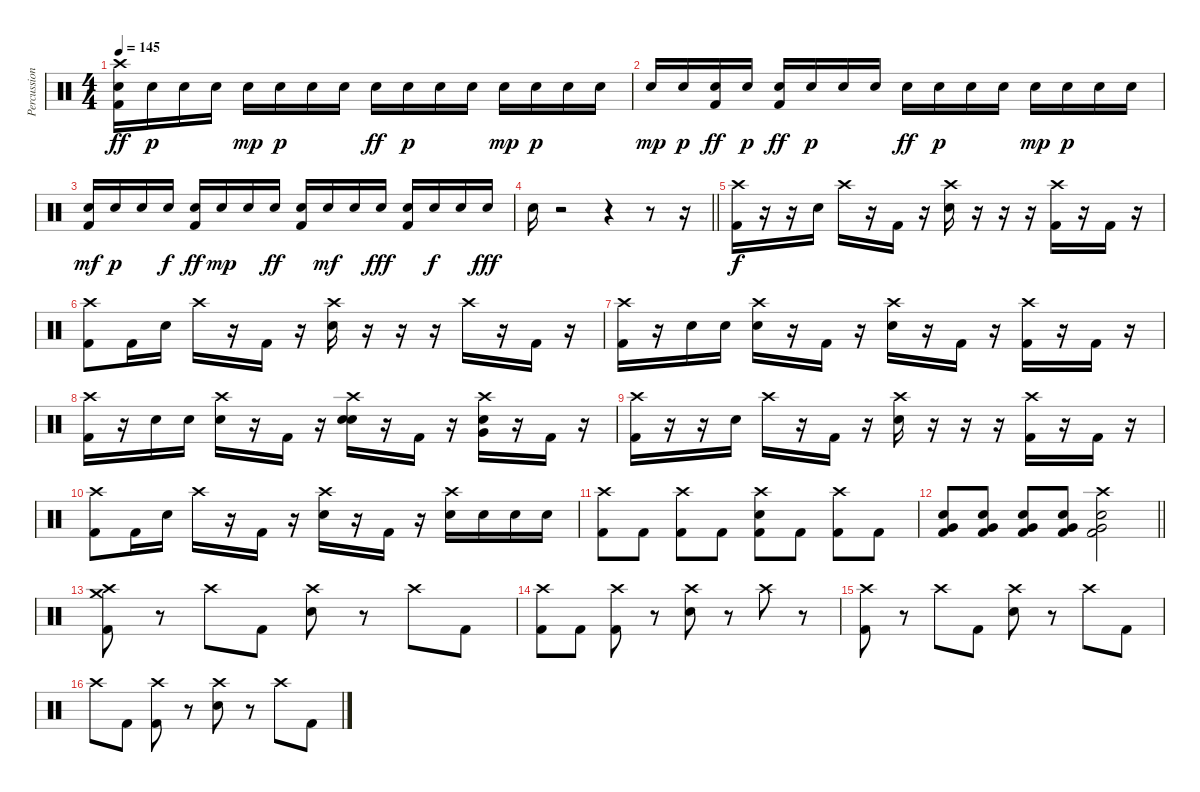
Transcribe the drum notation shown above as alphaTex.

\track ("Percussions" "Percussion") {instrument percussion}
\staff {score}
\articulation defaults
\ts (4 4)
\tempo 145
\clef neutral
\ks c
("Crash high (hit)" "Snare (hit) 2" "Kick (hit) 2").16{dy ff} "Snare (hit) 2".16{dy p} "Snare (hit) 2".16 "Snare (hit) 2".16 "Snare (hit) 2".16{dy mp} "Snare (hit) 2".16{dy p} "Snare (hit) 2".16 "Snare (hit) 2".16 "Electric Snare (hit)".16{dy ff} "Snare (hit) 2".16{dy p} "Snare (hit) 2".16 "Snare (hit) 2".16 "Snare (hit) 2".16{dy mp} "Snare (hit) 2".16{dy p} "Snare (hit) 2".16 "Snare (hit) 2".16 |
"Snare (hit) 2".16{dy mp} "Snare (hit) 2".16{dy p} ("Snare (hit) 2" "Kick (hit) 2").16{dy ff} "Snare (hit) 2".16{dy p} ("Snare (hit) 2" "Kick (hit) 2").16{dy ff} "Snare (hit) 2".16{dy p} "Snare (hit) 2".16 "Snare (hit) 2".16 "Electric Snare (hit)".16{dy ff} "Snare (hit) 2".16{dy p} "Snare (hit) 2".16 "Snare (hit) 2".16 "Snare (hit) 2".16{dy mp} "Snare (hit) 2".16{dy p} "Snare (hit) 2".16 "Snare (hit) 2".16 |
("Electric Snare (hit)" "Kick (hit) 2").16{dy mf} "Snare (hit) 2".16{dy p} "Snare (hit) 2".16 "Electric Snare (hit)".16{dy f} ("Electric Snare (hit)" "Kick (hit) 2").16{dy ff} "Snare (hit) 2".16{dy mp} "Snare (hit) 2".16 "Electric Snare (hit)".16{dy ff} ("Electric Snare (hit)" "Kick (hit) 2").16 "Snare (hit) 2".16{dy mf} "Snare (hit) 2".16 "Electric Snare (hit)".16{dy fff} ("Electric Snare (hit)" "Kick (hit) 2").16 "Snare (hit) 2".16{dy f} "Snare (hit) 2".16 "Electric Snare (hit)".16{dy fff} |
\barLineRight lightlight "Electric Snare (hit)".16
r.2 r.4 r.8 r.16 |
\section ("" "")
("Crash high (hit)" "Kick (hit) 2").16{dy f} r.16 r.16 "Electric Snare (hit)".16 "Crash high (hit)".16 r.16 "Kick (hit) 2".16 r.16 ("Crash high (hit)" "Electric Snare (hit)").16 r.16 r.16 r.16 ("Crash high (hit)" "Kick (hit) 2").16 r.16 "Kick (hit) 2".16 r.16 |
("Crash high (hit)" "Kick (hit) 2").8 "Kick (hit) 2".16 "Electric Snare (hit)".16 "Crash high (hit)".16 r.16 "Kick (hit) 2".16 r.16 ("Crash high (hit)" "Electric Snare (hit)").16 r.16 r.16 r.16 "Crash high (hit)".16 r.16 "Kick (hit) 2".16 r.16 |
("Crash high (hit)" "Kick (hit) 2").16 r.16 "Electric Snare (hit)".16 "Electric Snare (hit)".16 ("Crash high (hit)" "Electric Snare (hit)").16 r.16 "Kick (hit) 2".16 r.16 ("Crash high (hit)" "Electric Snare (hit)").16 r.16 "Kick (hit) 2".16 r.16 ("Crash high (hit)" "Kick (hit) 2").16 r.16 "Kick (hit) 2".16 r.16 |
("Crash high (hit)" "Kick (hit) 2").16 r.16 "Electric Snare (hit)".16 "Electric Snare (hit)".16 ("Crash high (hit)" "Electric Snare (hit)").16 r.16 "Kick (hit) 2".16 r.16 ("Crash high (hit)" "Snare (hit) 2" "Electric Snare (hit)").16 r.16 "Kick (hit) 2".16 r.16 ("Crash high (hit)" "Very Low Tom (hit)" "Snare (hit) 2").16 r.16 "Kick (hit) 2".16 r.16 |
("Crash high (hit)" "Kick (hit) 2").16 r.16 r.16 "Electric Snare (hit)".16 "Crash high (hit)".16 r.16 "Kick (hit) 2".16 r.16 ("Crash high (hit)" "Electric Snare (hit)").16 r.16 r.16 r.16 ("Crash high (hit)" "Kick (hit) 2").16 r.16 "Kick (hit) 2".16 r.16 |
("Crash high (hit)" "Kick (hit) 2").8 "Kick (hit) 2".16 "Electric Snare (hit)".16 "Crash high (hit)".16 r.16 "Kick (hit) 2".16 r.16 ("Crash high (hit)" "Electric Snare (hit)").16 r.16 "Kick (hit) 2".16 r.16 ("Crash high (hit)" "Electric Snare (hit)").16 "Electric Snare (hit)".16 "Electric Snare (hit)".16 "Electric Snare (hit)".16 |
("Crash high (hit)" "Kick (hit) 2").8 "Kick (hit) 2".8 ("Crash high (hit)" "Kick (hit) 2").8 "Kick (hit) 2".8 ("Crash high (hit)" "Electric Snare (hit)" "Kick (hit) 2").8 "Kick (hit) 2".8 ("Crash high (hit)" "Kick (hit) 2").8 "Kick (hit) 2".8 |
\barLineRight lightlight
("Very Low Tom (hit)" "Electric Snare (hit)" "Kick (hit) 2").8 ("Very Low Tom (hit)" "Electric Snare (hit)" "Kick (hit) 2").8 ("Very Low Tom (hit)" "Electric Snare (hit)" "Kick (hit) 2").8 ("Very Low Tom (hit)" "Electric Snare (hit)" "Kick (hit) 2").8 ("Crash high (hit)" "Very Low Tom (hit)" "Electric Snare (hit)" "Kick (hit) 2").2 |
\section ("" "")
("Crash medium (hit)" "Crash high (hit)" "Kick (hit) 2").8 r.8 "Crash high (hit)".8 "Kick (hit) 2".8 ("Crash high (hit)" "Electric Snare (hit)").8 r.8 "Crash high (hit)".8 "Kick (hit) 2".8 |
("Crash high (hit)" "Kick (hit) 2").8 "Kick (hit) 2".8 ("Crash high (hit)" "Kick (hit) 2").8 r.8 ("Crash high (hit)" "Electric Snare (hit)").8 r.8 "Crash high (hit)".8 r.8 |
("Crash high (hit)" "Kick (hit) 2").8 r.8 "Crash high (hit)".8 "Kick (hit) 2".8 ("Crash high (hit)" "Electric Snare (hit)").8 r.8 "Crash high (hit)".8 "Kick (hit) 2".8 |
"Crash high (hit)".8 "Kick (hit) 2".8 ("Crash high (hit)" "Kick (hit) 2").8 r.8 ("Crash high (hit)" "Electric Snare (hit)").8 r.8 "Crash high (hit)".8 "Kick (hit) 2".8
